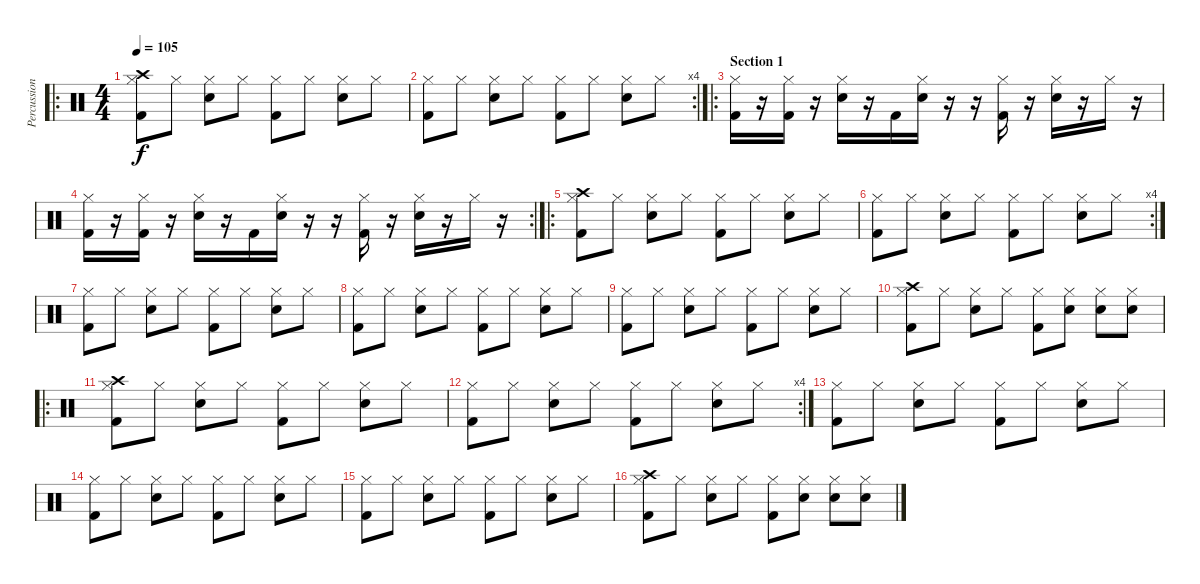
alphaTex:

\track ("Percussion" "Percussion") {instrument percussion}
\staff {score}
\articulation defaults
\ro
\ts (4 4)
\tempo 105
\clef neutral
\ks c
("Hi-Hat (closed)" "Crash high (hit)" "Kick (hit) 2").8{dy f} "Hi-Hat (closed)".8 ("Hi-Hat (closed)" "Snare (hit) 2").8 "Hi-Hat (closed)".8 ("Hi-Hat (closed)" "Kick (hit) 2").8 "Hi-Hat (closed)".8 ("Hi-Hat (closed)" "Snare (hit) 2").8 "Hi-Hat (closed)".8 |
\rc 4
("Hi-Hat (closed)" "Kick (hit) 2").8 "Hi-Hat (closed)".8 ("Hi-Hat (closed)" "Snare (hit) 2").8 "Hi-Hat (closed)".8 ("Hi-Hat (closed)" "Kick (hit) 2").8 "Hi-Hat (closed)".8 ("Hi-Hat (closed)" "Snare (hit) 2").8 "Hi-Hat (closed)".8 |
\ro
\section ("" "Section 1")
("Hi-Hat (closed)" "Kick (hit) 2").16 r.16 ("Hi-Hat (closed)" "Kick (hit) 2").16 r.16 ("Hi-Hat (closed)" "Snare (hit) 2").16 r.16 "Kick (hit) 2".16 ("Hi-Hat (closed)" "Snare (hit) 2").16 r.16 r.16 ("Hi-Hat (closed)" "Kick (hit) 2").16 r.16 ("Hi-Hat (closed)" "Snare (hit) 2").16 r.16 "Hi-Hat (closed)".16 r.16 |
\rc 2
("Hi-Hat (closed)" "Kick (hit) 2").16 r.16 ("Hi-Hat (closed)" "Kick (hit) 2").16 r.16 ("Hi-Hat (closed)" "Snare (hit) 2").16 r.16 "Kick (hit) 2".16 ("Hi-Hat (closed)" "Snare (hit) 2").16 r.16 r.16 ("Hi-Hat (closed)" "Kick (hit) 2").16 r.16 ("Hi-Hat (closed)" "Snare (hit) 2").16 r.16 "Hi-Hat (closed)".16 r.16 |
\ro
("Hi-Hat (closed)" "Crash high (hit)" "Kick (hit) 2").8 "Hi-Hat (closed)".8 ("Hi-Hat (closed)" "Snare (hit) 2").8 "Hi-Hat (closed)".8 ("Hi-Hat (closed)" "Kick (hit) 2").8 "Hi-Hat (closed)".8 ("Hi-Hat (closed)" "Snare (hit) 2").8 "Hi-Hat (closed)".8 |
\rc 4
("Hi-Hat (closed)" "Kick (hit) 2").8 "Hi-Hat (closed)".8 ("Hi-Hat (closed)" "Snare (hit) 2").8 "Hi-Hat (closed)".8 ("Hi-Hat (closed)" "Kick (hit) 2").8 "Hi-Hat (closed)".8 ("Hi-Hat (closed)" "Snare (hit) 2").8 "Hi-Hat (closed)".8 |
("Hi-Hat (closed)" "Kick (hit) 2").8 "Hi-Hat (closed)".8 ("Hi-Hat (closed)" "Snare (hit) 2").8 "Hi-Hat (closed)".8 ("Hi-Hat (closed)" "Kick (hit) 2").8 "Hi-Hat (closed)".8 ("Hi-Hat (closed)" "Snare (hit) 2").8 "Hi-Hat (closed)".8 |
("Hi-Hat (closed)" "Kick (hit) 2").8 "Hi-Hat (closed)".8 ("Hi-Hat (closed)" "Snare (hit) 2").8 "Hi-Hat (closed)".8 ("Hi-Hat (closed)" "Kick (hit) 2").8 "Hi-Hat (closed)".8 ("Hi-Hat (closed)" "Snare (hit) 2").8 "Hi-Hat (closed)".8 |
("Hi-Hat (closed)" "Kick (hit) 2").8 "Hi-Hat (closed)".8 ("Hi-Hat (closed)" "Snare (hit) 2").8 "Hi-Hat (closed)".8 ("Hi-Hat (closed)" "Kick (hit) 2").8 "Hi-Hat (closed)".8 ("Hi-Hat (closed)" "Snare (hit) 2").8 "Hi-Hat (closed)".8 |
("Hi-Hat (closed)" "Crash high (hit)" "Kick (hit) 2").8 "Hi-Hat (closed)".8 ("Hi-Hat (closed)" "Snare (hit) 2").8 "Hi-Hat (closed)".8 ("Hi-Hat (closed)" "Kick (hit) 2").8 ("Hi-Hat (closed)" "Snare (hit) 2").8 ("Hi-Hat (closed)" "Snare (hit) 2").8 ("Hi-Hat (closed)" "Snare (hit) 2").8 |
\ro
("Hi-Hat (closed)" "Crash high (hit)" "Kick (hit) 2").8 "Hi-Hat (closed)".8 ("Hi-Hat (closed)" "Snare (hit) 2").8 "Hi-Hat (closed)".8 ("Hi-Hat (closed)" "Kick (hit) 2").8 "Hi-Hat (closed)".8 ("Hi-Hat (closed)" "Snare (hit) 2").8 "Hi-Hat (closed)".8 |
\rc 4
("Hi-Hat (closed)" "Kick (hit) 2").8 "Hi-Hat (closed)".8 ("Hi-Hat (closed)" "Snare (hit) 2").8 "Hi-Hat (closed)".8 ("Hi-Hat (closed)" "Kick (hit) 2").8 "Hi-Hat (closed)".8 ("Hi-Hat (closed)" "Snare (hit) 2").8 "Hi-Hat (closed)".8 |
("Hi-Hat (closed)" "Kick (hit) 2").8 "Hi-Hat (closed)".8 ("Hi-Hat (closed)" "Snare (hit) 2").8 "Hi-Hat (closed)".8 ("Hi-Hat (closed)" "Kick (hit) 2").8 "Hi-Hat (closed)".8 ("Hi-Hat (closed)" "Snare (hit) 2").8 "Hi-Hat (closed)".8 |
("Hi-Hat (closed)" "Kick (hit) 2").8 "Hi-Hat (closed)".8 ("Hi-Hat (closed)" "Snare (hit) 2").8 "Hi-Hat (closed)".8 ("Hi-Hat (closed)" "Kick (hit) 2").8 "Hi-Hat (closed)".8 ("Hi-Hat (closed)" "Snare (hit) 2").8 "Hi-Hat (closed)".8 |
("Hi-Hat (closed)" "Kick (hit) 2").8 "Hi-Hat (closed)".8 ("Hi-Hat (closed)" "Snare (hit) 2").8 "Hi-Hat (closed)".8 ("Hi-Hat (closed)" "Kick (hit) 2").8 "Hi-Hat (closed)".8 ("Hi-Hat (closed)" "Snare (hit) 2").8 "Hi-Hat (closed)".8 |
("Hi-Hat (closed)" "Crash high (hit)" "Kick (hit) 2").8 "Hi-Hat (closed)".8 ("Hi-Hat (closed)" "Snare (hit) 2").8 "Hi-Hat (closed)".8 ("Hi-Hat (closed)" "Kick (hit) 2").8 ("Hi-Hat (closed)" "Snare (hit) 2").8 ("Hi-Hat (closed)" "Snare (hit) 2").8 ("Hi-Hat (closed)" "Snare (hit) 2").8
